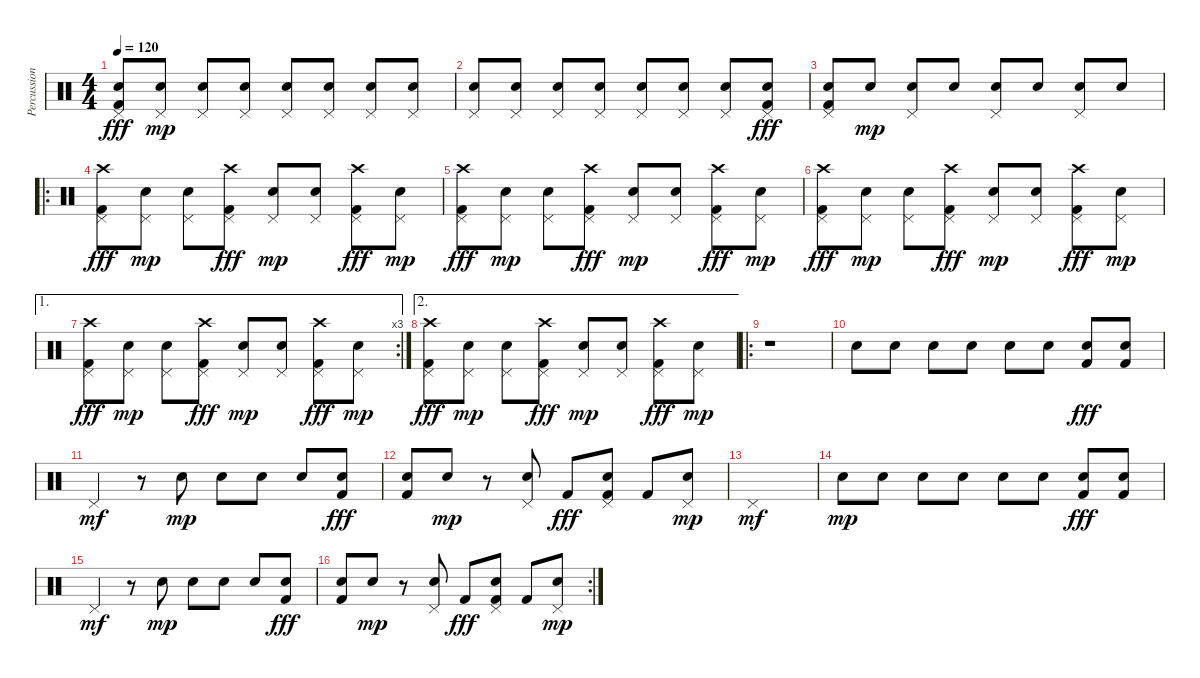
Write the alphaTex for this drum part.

\track ("Percussion" "Percussion") {instrument percussion}
\staff {score}
\articulation defaults
\ts (4 4)
\tempo 120
\clef neutral
\ks c
("Pedal Hi-Hat (hit)" "Electric Snare (hit)" "Kick (hit) 2").8{dy fff} ("Pedal Hi-Hat (hit)" "Electric Snare (hit)").8{dy mp} ("Pedal Hi-Hat (hit)" "Electric Snare (hit)").8 ("Pedal Hi-Hat (hit)" "Electric Snare (hit)").8 ("Pedal Hi-Hat (hit)" "Electric Snare (hit)").8 ("Pedal Hi-Hat (hit)" "Electric Snare (hit)").8 ("Pedal Hi-Hat (hit)" "Electric Snare (hit)").8 ("Pedal Hi-Hat (hit)" "Electric Snare (hit)").8 |
("Pedal Hi-Hat (hit)" "Electric Snare (hit)").8 ("Pedal Hi-Hat (hit)" "Electric Snare (hit)").8 ("Pedal Hi-Hat (hit)" "Electric Snare (hit)").8 ("Pedal Hi-Hat (hit)" "Electric Snare (hit)").8 ("Pedal Hi-Hat (hit)" "Electric Snare (hit)").8 ("Pedal Hi-Hat (hit)" "Electric Snare (hit)").8 ("Pedal Hi-Hat (hit)" "Electric Snare (hit)").8 ("Pedal Hi-Hat (hit)" "Electric Snare (hit)" "Kick (hit) 2").8{dy fff} |
("Pedal Hi-Hat (hit)" "Electric Snare (hit)" "Kick (hit) 2").8 "Electric Snare (hit)".8{dy mp} ("Pedal Hi-Hat (hit)" "Electric Snare (hit)").8 "Electric Snare (hit)".8 ("Pedal Hi-Hat (hit)" "Electric Snare (hit)").8 "Electric Snare (hit)".8 ("Pedal Hi-Hat (hit)" "Electric Snare (hit)").8 "Electric Snare (hit)".8 |
\ro
("Pedal Hi-Hat (hit)" "Crash high (hit)" "Kick (hit) 2").8{dy fff} ("Pedal Hi-Hat (hit)" "Electric Snare (hit)").8{dy mp} ("Pedal Hi-Hat (hit)" "Electric Snare (hit)").8 ("Pedal Hi-Hat (hit)" "Crash high (hit)" "Kick (hit) 2").8{dy fff} ("Pedal Hi-Hat (hit)" "Electric Snare (hit)").8{dy mp} ("Pedal Hi-Hat (hit)" "Electric Snare (hit)").8 ("Pedal Hi-Hat (hit)" "Crash high (hit)" "Kick (hit) 2").8{dy fff} ("Pedal Hi-Hat (hit)" "Electric Snare (hit)").8{dy mp} |
("Pedal Hi-Hat (hit)" "Crash high (hit)" "Kick (hit) 2").8{dy fff} ("Pedal Hi-Hat (hit)" "Electric Snare (hit)").8{dy mp} ("Pedal Hi-Hat (hit)" "Electric Snare (hit)").8 ("Pedal Hi-Hat (hit)" "Crash high (hit)" "Kick (hit) 2").8{dy fff} ("Pedal Hi-Hat (hit)" "Electric Snare (hit)").8{dy mp} ("Pedal Hi-Hat (hit)" "Electric Snare (hit)").8 ("Pedal Hi-Hat (hit)" "Crash high (hit)" "Kick (hit) 2").8{dy fff} ("Pedal Hi-Hat (hit)" "Electric Snare (hit)").8{dy mp} |
("Pedal Hi-Hat (hit)" "Crash high (hit)" "Kick (hit) 2").8{dy fff} ("Pedal Hi-Hat (hit)" "Electric Snare (hit)").8{dy mp} ("Pedal Hi-Hat (hit)" "Electric Snare (hit)").8 ("Pedal Hi-Hat (hit)" "Crash high (hit)" "Kick (hit) 2").8{dy fff} ("Pedal Hi-Hat (hit)" "Electric Snare (hit)").8{dy mp} ("Pedal Hi-Hat (hit)" "Electric Snare (hit)").8 ("Pedal Hi-Hat (hit)" "Crash high (hit)" "Kick (hit) 2").8{dy fff} ("Pedal Hi-Hat (hit)" "Electric Snare (hit)").8{dy mp} |
\ae 1
\rc 3
("Pedal Hi-Hat (hit)" "Crash high (hit)" "Kick (hit) 2").8{dy fff} ("Pedal Hi-Hat (hit)" "Electric Snare (hit)").8{dy mp} ("Pedal Hi-Hat (hit)" "Electric Snare (hit)").8 ("Pedal Hi-Hat (hit)" "Crash high (hit)" "Kick (hit) 2").8{dy fff} ("Pedal Hi-Hat (hit)" "Electric Snare (hit)").8{dy mp} ("Pedal Hi-Hat (hit)" "Electric Snare (hit)").8 ("Pedal Hi-Hat (hit)" "Crash high (hit)" "Kick (hit) 2").8{dy fff} ("Pedal Hi-Hat (hit)" "Electric Snare (hit)").8{dy mp} |
\ae 2
("Pedal Hi-Hat (hit)" "Crash high (hit)" "Kick (hit) 2").8{dy fff} ("Pedal Hi-Hat (hit)" "Electric Snare (hit)").8{dy mp} ("Pedal Hi-Hat (hit)" "Electric Snare (hit)").8 ("Pedal Hi-Hat (hit)" "Crash high (hit)" "Kick (hit) 2").8{dy fff} ("Pedal Hi-Hat (hit)" "Electric Snare (hit)").8{dy mp} ("Pedal Hi-Hat (hit)" "Electric Snare (hit)").8 ("Pedal Hi-Hat (hit)" "Crash high (hit)" "Kick (hit) 2").8{dy fff} ("Pedal Hi-Hat (hit)" "Electric Snare (hit)").8{dy mp} |
\ro
r.1 |
"Electric Snare (hit)".8 "Electric Snare (hit)".8 "Electric Snare (hit)".8 "Electric Snare (hit)".8 "Electric Snare (hit)".8 "Electric Snare (hit)".8 ("Electric Snare (hit)" "Kick (hit) 2").8{dy fff} ("Electric Snare (hit)" "Kick (hit) 2").8 |
"Pedal Hi-Hat (hit)".4{dy mf} r.8 "Electric Snare (hit)".8{dy mp} "Electric Snare (hit)".8 "Electric Snare (hit)".8 "Electric Snare (hit)".8 ("Electric Snare (hit)" "Kick (hit) 2").8{dy fff} |
("Electric Snare (hit)" "Kick (hit) 2").8 "Electric Snare (hit)".8{dy mp} r.8 ("Pedal Hi-Hat (hit)" "Electric Snare (hit)").8 "Kick (hit) 2".8{dy fff} ("Pedal Hi-Hat (hit)" "Electric Snare (hit)" "Kick (hit) 2").8 "Kick (hit) 2".8 ("Pedal Hi-Hat (hit)" "Electric Snare (hit)").8{dy mp} |
"Pedal Hi-Hat (hit)".1{dy mf} |
"Electric Snare (hit)".8{dy mp} "Electric Snare (hit)".8 "Electric Snare (hit)".8 "Electric Snare (hit)".8 "Electric Snare (hit)".8 "Electric Snare (hit)".8 ("Electric Snare (hit)" "Kick (hit) 2").8{dy fff} ("Electric Snare (hit)" "Kick (hit) 2").8 |
"Pedal Hi-Hat (hit)".4{dy mf} r.8 "Electric Snare (hit)".8{dy mp} "Electric Snare (hit)".8 "Electric Snare (hit)".8 "Electric Snare (hit)".8 ("Electric Snare (hit)" "Kick (hit) 2").8{dy fff} |
\rc 2
("Electric Snare (hit)" "Kick (hit) 2").8 "Electric Snare (hit)".8{dy mp} r.8 ("Pedal Hi-Hat (hit)" "Electric Snare (hit)").8 "Kick (hit) 2".8{dy fff} ("Pedal Hi-Hat (hit)" "Electric Snare (hit)" "Kick (hit) 2").8 "Kick (hit) 2".8 ("Pedal Hi-Hat (hit)" "Electric Snare (hit)").8{dy mp}
